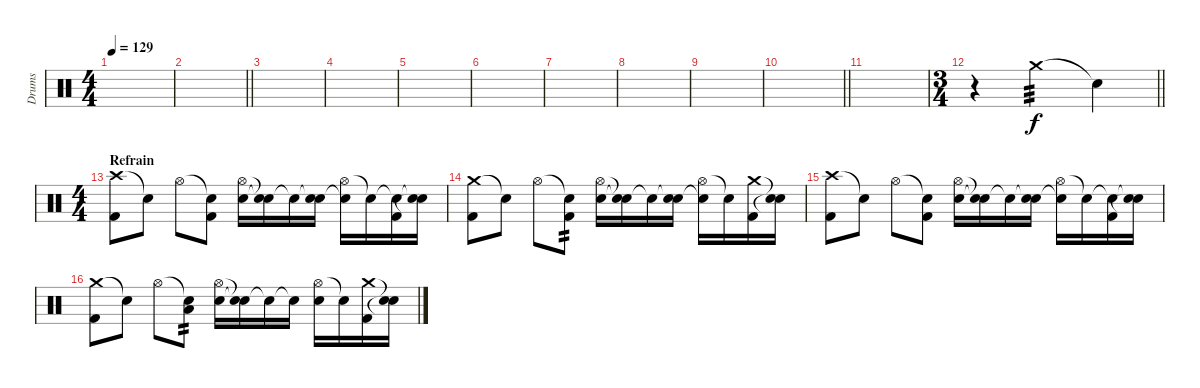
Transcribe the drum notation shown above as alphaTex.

\track ("Drums" "Drums") {instrument percussion}
\staff {score}
\articulation defaults
\ts (4 4)
\tempo 129
\clef neutral
\ks c
|
\barLineRight lightlight
|
|
|
|
|
|
|
|
\barLineRight lightlight
|
|
\ts (3 4)
\barLineRight lightlight
r.4{volume 3} "Crash medium (hit)".4{tp 3 volume 11} "Snare (hit)"{t}.4 |
\ts (4 4)
\section ("" "Refrain")
("Crash high (hit)" "Kick (hit) 2").8{volume 15} "Snare (hit)"{t}.8 "Hi-Hat (open)".8 ("Snare (hit)"{t} "Kick (hit) 2").8 ("Hi-Hat (open)" "Electric Snare (hit)").16 ("Snare (hit)"{t} "Snare (hit)"{t}).16 "Snare (hit)"{t}.16 ("Snare (hit)"{t} "Electric Snare (hit)").16 ("Hi-Hat (open)" "Snare (hit)"{t}).16 "Snare (hit)"{t}.16 ("Snare (hit)"{t} "Kick (hit) 2").16 ("Snare (hit)"{t} "Snare (hit)"{t}).16 |
("Crash medium (hit)" "Kick (hit) 2").8 "Snare (hit)"{t}.8 "Hi-Hat (open)".8 ("Snare (hit)"{t} "Kick (hit) 2").8{tp 2} ("Hi-Hat (open)" "Electric Snare (hit)").16 ("Snare (hit)"{t} "Snare (hit)"{t}).16 "Snare (hit)"{t}.16 ("Snare (hit)"{t} "Electric Snare (hit)").16 ("Hi-Hat (open)" "Snare (hit)"{t}).16 "Snare (hit)"{t}.16 ("Crash medium (hit)" "Kick (hit) 2").16 ("Snare (hit)"{t} "Snare (hit)"{t}).16 |
("Crash high (hit)" "Kick (hit) 2").8 "Snare (hit)"{t}.8 "Hi-Hat (open)".8 ("Snare (hit)"{t} "Kick (hit) 2").8 ("Hi-Hat (open)" "Electric Snare (hit)").16 ("Snare (hit)"{t} "Snare (hit)"{t}).16 "Snare (hit)"{t}.16 ("Snare (hit)"{t} "Electric Snare (hit)").16 ("Hi-Hat (open)" "Snare (hit)"{t}).16 "Snare (hit)"{t}.16 ("Snare (hit)"{t} "Kick (hit) 2").16 ("Snare (hit)"{t} "Snare (hit)"{t}).16 |
("Crash medium (hit)" "Kick (hit) 2").8 "Snare (hit)"{t}.8 "Hi-Hat (open)".8 ("Snare (hit)"{t} "Low Tom (hit)").8{tp 2} ("Hi-Hat (open)" "Electric Snare (hit)").16 ("Snare (hit)"{t} "Snare (hit)"{t}).16 "Snare (hit)"{t}.16 "Snare (hit)"{t}.16 ("Hi-Hat (open)" "Electric Snare (hit)").16 "Snare (hit)"{t}.16 ("Crash medium (hit)" "Kick (hit) 2").16 ("Snare (hit)"{t} "Snare (hit)"{t}).16
